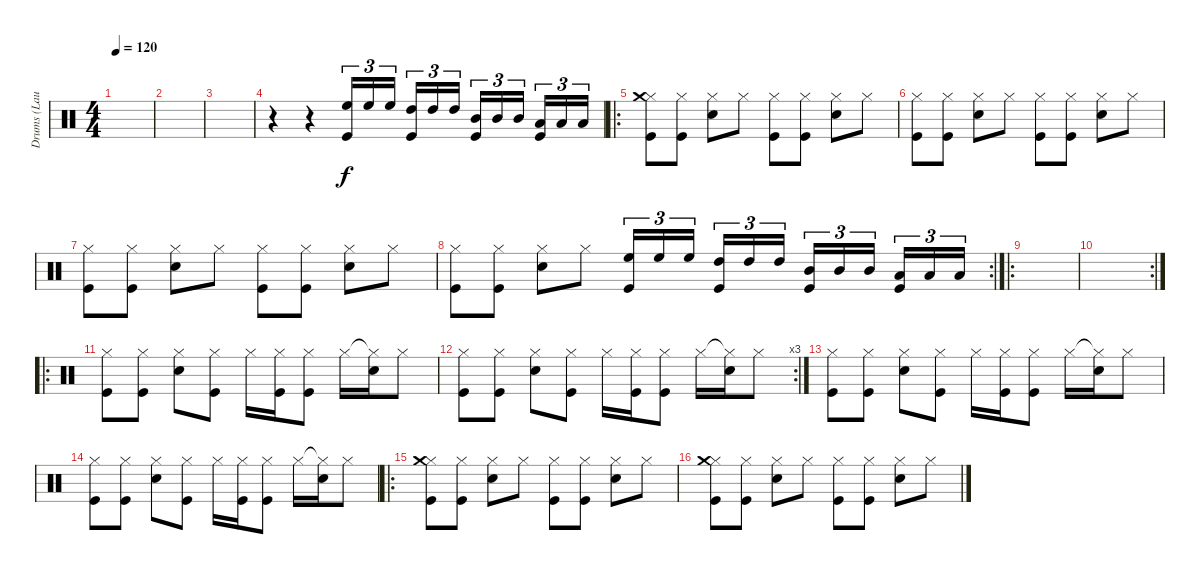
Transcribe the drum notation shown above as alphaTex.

\track ("Drums (Laurent)" "Drums (Lau") {instrument percussion}
\staff {score}
\articulation defaults
\ts (4 4)
\tempo 120
\clef neutral
\ks c
|
|
|
r.4 r.4 ("High Floor Tom (hit)" "Kick (hit)").16{tu (3 2)} "High Floor Tom (hit)".16{tu (3 2)} "High Floor Tom (hit)".16{tu (3 2)} ("High Tom (hit)" "Kick (hit)").16{tu (3 2)} "High Tom (hit)".16{tu (3 2)} "High Tom (hit)".16{tu (3 2)} ("Mid Tom (hit)" "Kick (hit)").16{tu (3 2)} "Mid Tom (hit)".16{tu (3 2)} "Mid Tom (hit)".16{tu (3 2)} ("Low Tom (hit)" "Kick (hit)").16{tu (3 2)} "Low Tom (hit)".16{tu (3 2)} "Low Tom (hit)".16{tu (3 2)} |
\ro
("Hi-Hat (closed)" "Crash medium (hit)" "Kick (hit)").8 ("Hi-Hat (closed)" "Kick (hit)").8 ("Hi-Hat (closed)" "Electric Snare (hit)").8 "Hi-Hat (closed)".8 ("Hi-Hat (closed)" "Kick (hit)").8 ("Hi-Hat (closed)" "Kick (hit)").8 ("Hi-Hat (closed)" "Electric Snare (hit)").8 "Hi-Hat (closed)".8 |
("Hi-Hat (closed)" "Kick (hit)").8 ("Hi-Hat (closed)" "Kick (hit)").8 ("Hi-Hat (closed)" "Electric Snare (hit)").8 "Hi-Hat (closed)".8 ("Hi-Hat (closed)" "Kick (hit)").8 ("Hi-Hat (closed)" "Kick (hit)").8 ("Hi-Hat (closed)" "Electric Snare (hit)").8 "Hi-Hat (closed)".8 |
("Hi-Hat (closed)" "Kick (hit)").8 ("Hi-Hat (closed)" "Kick (hit)").8 ("Hi-Hat (closed)" "Electric Snare (hit)").8 "Hi-Hat (closed)".8 ("Hi-Hat (closed)" "Kick (hit)").8 ("Hi-Hat (closed)" "Kick (hit)").8 ("Hi-Hat (closed)" "Electric Snare (hit)").8 "Hi-Hat (closed)".8 |
\rc 2
("Hi-Hat (closed)" "Kick (hit)").8 ("Hi-Hat (closed)" "Kick (hit)").8 ("Hi-Hat (closed)" "Electric Snare (hit)").8 "Hi-Hat (closed)".8 ("High Floor Tom (hit)" "Kick (hit)").16{tu (3 2)} "High Floor Tom (hit)".16{tu (3 2)} "High Floor Tom (hit)".16{tu (3 2)} ("High Tom (hit)" "Kick (hit)").16{tu (3 2)} "High Tom (hit)".16{tu (3 2)} "High Tom (hit)".16{tu (3 2)} ("Mid Tom (hit)" "Kick (hit)").16{tu (3 2)} "Mid Tom (hit)".16{tu (3 2)} "Mid Tom (hit)".16{tu (3 2)} ("Low Tom (hit)" "Kick (hit)").16{tu (3 2)} "Low Tom (hit)".16{tu (3 2)} "Low Tom (hit)".16{tu (3 2)} |
\ro
|
\rc 2
|
\ro
("Hi-Hat (closed)" "Kick (hit)").8 ("Hi-Hat (closed)" "Kick (hit)").8 ("Hi-Hat (closed)" "Electric Snare (hit)").8 ("Hi-Hat (closed)" "Kick (hit)").8 "Hi-Hat (closed)".16 ("Hi-Hat (closed)" "Kick (hit)").16 ("Hi-Hat (closed)" "Kick (hit)").8 "Hi-Hat (closed)".16 ("Hi-Hat (closed)"{t} "Electric Snare (hit)").16 "Hi-Hat (closed)".8 |
\rc 3
("Hi-Hat (closed)" "Kick (hit)").8 ("Hi-Hat (closed)" "Kick (hit)").8 ("Hi-Hat (closed)" "Electric Snare (hit)").8 ("Hi-Hat (closed)" "Kick (hit)").8 "Hi-Hat (closed)".16 ("Hi-Hat (closed)" "Kick (hit)").16 ("Hi-Hat (closed)" "Kick (hit)").8 "Hi-Hat (closed)".16 ("Hi-Hat (closed)"{t} "Electric Snare (hit)").16 "Hi-Hat (closed)".8 |
("Hi-Hat (closed)" "Kick (hit)").8 ("Hi-Hat (closed)" "Kick (hit)").8 ("Hi-Hat (closed)" "Electric Snare (hit)").8 ("Hi-Hat (closed)" "Kick (hit)").8 "Hi-Hat (closed)".16 ("Hi-Hat (closed)" "Kick (hit)").16 ("Hi-Hat (closed)" "Kick (hit)").8 "Hi-Hat (closed)".16 ("Hi-Hat (closed)"{t} "Electric Snare (hit)").16 "Hi-Hat (closed)".8 |
("Hi-Hat (closed)" "Kick (hit)").8 ("Hi-Hat (closed)" "Kick (hit)").8 ("Hi-Hat (closed)" "Electric Snare (hit)").8 ("Hi-Hat (closed)" "Kick (hit)").8 "Hi-Hat (closed)".16 ("Hi-Hat (closed)" "Kick (hit)").16 ("Hi-Hat (closed)" "Kick (hit)").8 "Hi-Hat (closed)".16 ("Hi-Hat (closed)"{t} "Electric Snare (hit)").16 "Hi-Hat (closed)".8 |
\ro
("Hi-Hat (closed)" "Crash medium (hit)" "Kick (hit)").8 ("Hi-Hat (closed)" "Kick (hit)").8 ("Hi-Hat (closed)" "Electric Snare (hit)").8 "Hi-Hat (closed)".8 ("Hi-Hat (closed)" "Kick (hit)").8 ("Hi-Hat (closed)" "Kick (hit)").8 ("Hi-Hat (closed)" "Electric Snare (hit)").8 "Hi-Hat (closed)".8 |
("Hi-Hat (closed)" "Crash medium (hit)" "Kick (hit)").8 ("Hi-Hat (closed)" "Kick (hit)").8 ("Hi-Hat (closed)" "Electric Snare (hit)").8 "Hi-Hat (closed)".8 ("Hi-Hat (closed)" "Kick (hit)").8 ("Hi-Hat (closed)" "Kick (hit)").8 ("Hi-Hat (closed)" "Electric Snare (hit)").8 "Hi-Hat (closed)".8
